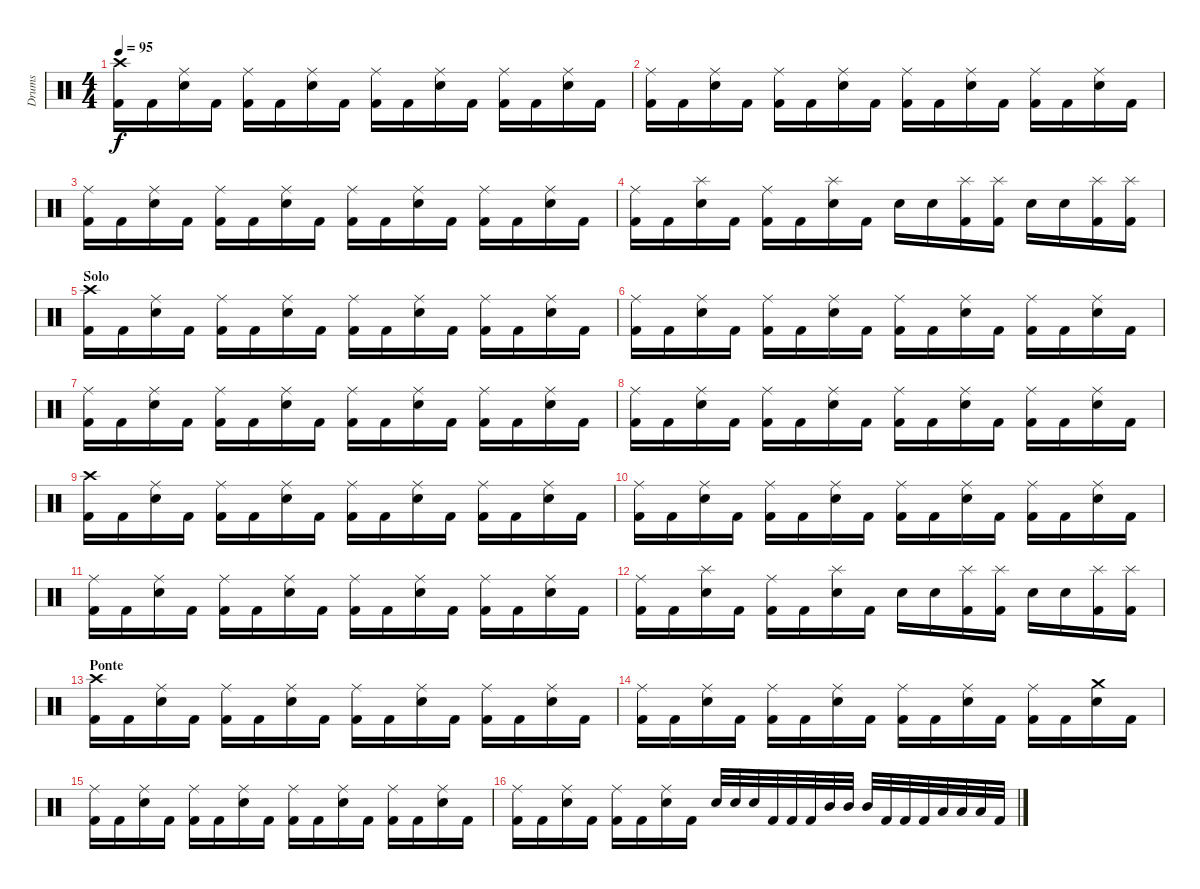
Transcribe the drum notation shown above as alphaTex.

\track ("Drums" "Drums") {instrument percussion}
\staff {score}
\articulation defaults
\ts (4 4)
\tempo 95
\clef neutral
\ks c
("Crash high (hit)" "Kick (hit) 2").16{dy f} "Kick (hit) 2".16 ("Ride (middle)" "Snare (hit) 2").16 "Kick (hit) 2".16 ("Ride (middle)" "Kick (hit) 2").16 "Kick (hit) 2".16 ("Ride (middle)" "Snare (hit) 2").16 "Kick (hit) 2".16 ("Ride (middle)" "Kick (hit) 2").16 "Kick (hit) 2".16 ("Ride (middle)" "Snare (hit) 2").16 "Kick (hit) 2".16 ("Ride (middle)" "Kick (hit) 2").16 "Kick (hit) 2".16 ("Ride (middle)" "Snare (hit) 2").16 "Kick (hit) 2".16 |
("Ride (middle)" "Kick (hit) 2").16 "Kick (hit) 2".16 ("Ride (middle)" "Snare (hit) 2").16 "Kick (hit) 2".16 ("Ride (middle)" "Kick (hit) 2").16 "Kick (hit) 2".16 ("Ride (middle)" "Snare (hit) 2").16 "Kick (hit) 2".16 ("Ride (middle)" "Kick (hit) 2").16 "Kick (hit) 2".16 ("Ride (middle)" "Snare (hit) 2").16 "Kick (hit) 2".16 ("Ride (middle)" "Kick (hit) 2").16 "Kick (hit) 2".16 ("Ride (middle)" "Snare (hit) 2").16 "Kick (hit) 2".16 |
("Ride (middle)" "Kick (hit) 2").16 "Kick (hit) 2".16 ("Ride (middle)" "Snare (hit) 2").16 "Kick (hit) 2".16 ("Ride (middle)" "Kick (hit) 2").16 "Kick (hit) 2".16 ("Ride (middle)" "Snare (hit) 2").16 "Kick (hit) 2".16 ("Ride (middle)" "Kick (hit) 2").16 "Kick (hit) 2".16 ("Ride (middle)" "Snare (hit) 2").16 "Kick (hit) 2".16 ("Ride (middle)" "Kick (hit) 2").16 "Kick (hit) 2".16 ("Ride (middle)" "Snare (hit) 2").16 "Kick (hit) 2".16 |
("Ride (middle)" "Kick (hit) 2").16 "Kick (hit) 2".16 ("Splash (hit)" "Snare (hit) 2").16 "Kick (hit) 2".16 ("Ride (middle)" "Kick (hit) 2").16 "Kick (hit) 2".16 ("Splash (hit)" "Snare (hit) 2").16 "Kick (hit) 2".16 "Snare (hit) 2".16 "Snare (hit) 2".16 ("Splash (hit)" "Kick (hit) 2").16 ("Splash (hit)" "Kick (hit) 2").16 "Snare (hit) 2".16 "Snare (hit) 2".16 ("Splash (hit)" "Kick (hit) 2").16 ("Splash (hit)" "Kick (hit) 2").16 |
\section ("" "Solo")
("Crash high (hit)" "Kick (hit) 2").16 "Kick (hit) 2".16 ("Ride (middle)" "Snare (hit) 2").16 "Kick (hit) 2".16 ("Ride (middle)" "Kick (hit) 2").16 "Kick (hit) 2".16 ("Ride (middle)" "Snare (hit) 2").16 "Kick (hit) 2".16 ("Ride (middle)" "Kick (hit) 2").16 "Kick (hit) 2".16 ("Ride (middle)" "Snare (hit) 2").16 "Kick (hit) 2".16 ("Ride (middle)" "Kick (hit) 2").16 "Kick (hit) 2".16 ("Ride (middle)" "Snare (hit) 2").16 "Kick (hit) 2".16 |
("Ride (middle)" "Kick (hit) 2").16 "Kick (hit) 2".16 ("Ride (middle)" "Snare (hit) 2").16 "Kick (hit) 2".16 ("Ride (middle)" "Kick (hit) 2").16 "Kick (hit) 2".16 ("Ride (middle)" "Snare (hit) 2").16 "Kick (hit) 2".16 ("Ride (middle)" "Kick (hit) 2").16 "Kick (hit) 2".16 ("Ride (middle)" "Snare (hit) 2").16 "Kick (hit) 2".16 ("Ride (middle)" "Kick (hit) 2").16 "Kick (hit) 2".16 ("Ride (middle)" "Snare (hit) 2").16 "Kick (hit) 2".16 |
("Ride (middle)" "Kick (hit) 2").16 "Kick (hit) 2".16 ("Ride (middle)" "Snare (hit) 2").16 "Kick (hit) 2".16 ("Ride (middle)" "Kick (hit) 2").16 "Kick (hit) 2".16 ("Ride (middle)" "Snare (hit) 2").16 "Kick (hit) 2".16 ("Ride (middle)" "Kick (hit) 2").16 "Kick (hit) 2".16 ("Ride (middle)" "Snare (hit) 2").16 "Kick (hit) 2".16 ("Ride (middle)" "Kick (hit) 2").16 "Kick (hit) 2".16 ("Ride (middle)" "Snare (hit) 2").16 "Kick (hit) 2".16 |
("Ride (middle)" "Kick (hit) 2").16 "Kick (hit) 2".16 ("Ride (middle)" "Snare (hit) 2").16 "Kick (hit) 2".16 ("Ride (middle)" "Kick (hit) 2").16 "Kick (hit) 2".16 ("Ride (middle)" "Snare (hit) 2").16 "Kick (hit) 2".16 ("Ride (middle)" "Kick (hit) 2").16 "Kick (hit) 2".16 ("Ride (middle)" "Snare (hit) 2").16 "Kick (hit) 2".16 ("Ride (middle)" "Kick (hit) 2").16 "Kick (hit) 2".16 ("Ride (middle)" "Snare (hit) 2").16 "Kick (hit) 2".16 |
("Crash high (hit)" "Kick (hit) 2").16 "Kick (hit) 2".16 ("Ride (middle)" "Snare (hit) 2").16 "Kick (hit) 2".16 ("Ride (middle)" "Kick (hit) 2").16 "Kick (hit) 2".16 ("Ride (middle)" "Snare (hit) 2").16 "Kick (hit) 2".16 ("Ride (middle)" "Kick (hit) 2").16 "Kick (hit) 2".16 ("Ride (middle)" "Snare (hit) 2").16 "Kick (hit) 2".16 ("Ride (middle)" "Kick (hit) 2").16 "Kick (hit) 2".16 ("Ride (middle)" "Snare (hit) 2").16 "Kick (hit) 2".16 |
("Ride (middle)" "Kick (hit) 2").16 "Kick (hit) 2".16 ("Ride (middle)" "Snare (hit) 2").16 "Kick (hit) 2".16 ("Ride (middle)" "Kick (hit) 2").16 "Kick (hit) 2".16 ("Ride (middle)" "Snare (hit) 2").16 "Kick (hit) 2".16 ("Ride (middle)" "Kick (hit) 2").16 "Kick (hit) 2".16 ("Ride (middle)" "Snare (hit) 2").16 "Kick (hit) 2".16 ("Ride (middle)" "Kick (hit) 2").16 "Kick (hit) 2".16 ("Ride (middle)" "Snare (hit) 2").16 "Kick (hit) 2".16 |
("Ride (middle)" "Kick (hit) 2").16 "Kick (hit) 2".16 ("Ride (middle)" "Snare (hit) 2").16 "Kick (hit) 2".16 ("Ride (middle)" "Kick (hit) 2").16 "Kick (hit) 2".16 ("Ride (middle)" "Snare (hit) 2").16 "Kick (hit) 2".16 ("Ride (middle)" "Kick (hit) 2").16 "Kick (hit) 2".16 ("Ride (middle)" "Snare (hit) 2").16 "Kick (hit) 2".16 ("Ride (middle)" "Kick (hit) 2").16 "Kick (hit) 2".16 ("Ride (middle)" "Snare (hit) 2").16 "Kick (hit) 2".16 |
("Ride (middle)" "Kick (hit) 2").16 "Kick (hit) 2".16 ("Splash (hit)" "Snare (hit) 2").16 "Kick (hit) 2".16 ("Ride (middle)" "Kick (hit) 2").16 "Kick (hit) 2".16 ("Splash (hit)" "Snare (hit) 2").16 "Kick (hit) 2".16 "Snare (hit) 2".16 "Snare (hit) 2".16 ("Splash (hit)" "Kick (hit) 2").16 ("Splash (hit)" "Kick (hit) 2").16 "Snare (hit) 2".16 "Snare (hit) 2".16 ("Splash (hit)" "Kick (hit) 2").16 ("Splash (hit)" "Kick (hit) 2").16 |
\section ("" "Ponte")
("Crash high (hit)" "Kick (hit) 2").16 "Kick (hit) 2".16 ("Ride (middle)" "Snare (hit) 2").16 "Kick (hit) 2".16 ("Ride (middle)" "Kick (hit) 2").16 "Kick (hit) 2".16 ("Ride (middle)" "Snare (hit) 2").16 "Kick (hit) 2".16 ("Ride (middle)" "Kick (hit) 2").16 "Kick (hit) 2".16 ("Ride (middle)" "Snare (hit) 2").16 "Kick (hit) 2".16 ("Ride (middle)" "Kick (hit) 2").16 "Kick (hit) 2".16 ("Ride (middle)" "Snare (hit) 2").16 "Kick (hit) 2".16 |
("Ride (middle)" "Kick (hit) 2").16 "Kick (hit) 2".16 ("Ride (middle)" "Snare (hit) 2").16 "Kick (hit) 2".16 ("Ride (middle)" "Kick (hit) 2").16 "Kick (hit) 2".16 ("Ride (middle)" "Snare (hit) 2").16 "Kick (hit) 2".16 ("Ride (middle)" "Kick (hit) 2").16 "Kick (hit) 2".16 ("Ride (middle)" "Snare (hit) 2").16 "Kick (hit) 2".16 ("Ride (middle)" "Kick (hit) 2").16 "Kick (hit) 2".16 ("Crash medium (hit)" "Snare (hit) 2").16 "Kick (hit) 2".16 |
("Ride (middle)" "Kick (hit) 2").16 "Kick (hit) 2".16 ("Ride (middle)" "Snare (hit) 2").16 "Kick (hit) 2".16 ("Ride (middle)" "Kick (hit) 2").16 "Kick (hit) 2".16 ("Ride (middle)" "Snare (hit) 2").16 "Kick (hit) 2".16 ("Ride (middle)" "Kick (hit) 2").16 "Kick (hit) 2".16 ("Ride (middle)" "Snare (hit) 2").16 "Kick (hit) 2".16 ("Ride (middle)" "Kick (hit) 2").16 "Kick (hit) 2".16 ("Ride (middle)" "Snare (hit) 2").16 "Kick (hit) 2".16 |
("Ride (middle)" "Kick (hit) 2").16 "Kick (hit) 2".16 ("Ride (middle)" "Snare (hit) 2").16 "Kick (hit) 2".16 ("Ride (middle)" "Kick (hit) 2").16 "Kick (hit) 2".16 ("Ride (middle)" "Snare (hit) 2").16 "Kick (hit) 2".16 "Snare (hit) 2".32 "Snare (hit) 2".32 "Snare (hit) 2".32 "Kick (hit) 2".32 "Kick (hit) 2".32 "Kick (hit) 2".32 "Mid Tom (hit)".32 "Mid Tom (hit)".32 "Mid Tom (hit)".32 "Kick (hit) 2".32 "Kick (hit) 2".32 "Kick (hit) 2".32 "Low Tom (hit)".32 "Low Tom (hit)".32 "Low Tom (hit)".32 "Kick (hit) 2".32
